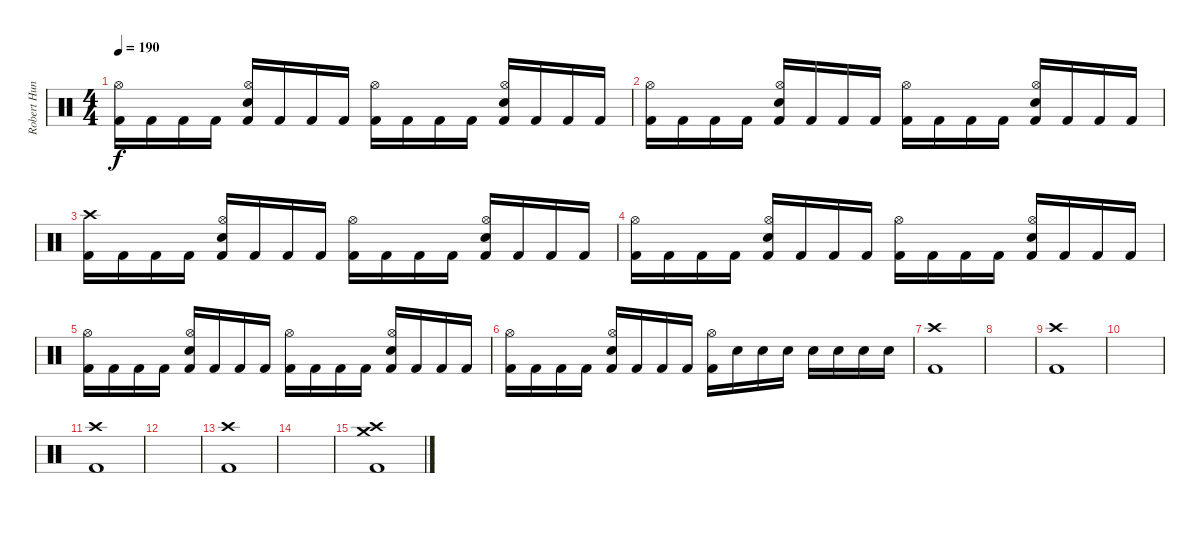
\track ("Robert Hunecke" "Robert Hun") {instrument percussion}
\staff {score}
\articulation defaults
\ts (4 4)
\tempo 190
\clef neutral
\ks c
("Kick (hit) 2" "Hi-Hat (open)").16{dy f} "Kick (hit) 2".16 "Kick (hit) 2".16 "Kick (hit) 2".16 ("Kick (hit) 2" "Electric Snare (hit)" "Hi-Hat (open)").16 "Kick (hit) 2".16 "Kick (hit) 2".16 "Kick (hit) 2".16 ("Kick (hit) 2" "Hi-Hat (open)").16 "Kick (hit) 2".16 "Kick (hit) 2".16 "Kick (hit) 2".16 ("Kick (hit) 2" "Electric Snare (hit)" "Hi-Hat (open)").16 "Kick (hit) 2".16 "Kick (hit) 2".16 "Kick (hit) 2".16 |
("Kick (hit) 2" "Hi-Hat (open)").16 "Kick (hit) 2".16 "Kick (hit) 2".16 "Kick (hit) 2".16 ("Kick (hit) 2" "Electric Snare (hit)" "Hi-Hat (open)").16 "Kick (hit) 2".16 "Kick (hit) 2".16 "Kick (hit) 2".16 ("Kick (hit) 2" "Hi-Hat (open)").16 "Kick (hit) 2".16 "Kick (hit) 2".16 "Kick (hit) 2".16 ("Kick (hit) 2" "Electric Snare (hit)" "Hi-Hat (open)").16 "Kick (hit) 2".16 "Kick (hit) 2".16 "Kick (hit) 2".16 |
("Kick (hit) 2" "Crash high (hit)").16 "Kick (hit) 2".16 "Kick (hit) 2".16 "Kick (hit) 2".16 ("Kick (hit) 2" "Electric Snare (hit)" "Hi-Hat (open)").16 "Kick (hit) 2".16 "Kick (hit) 2".16 "Kick (hit) 2".16 ("Kick (hit) 2" "Hi-Hat (open)").16 "Kick (hit) 2".16 "Kick (hit) 2".16 "Kick (hit) 2".16 ("Kick (hit) 2" "Electric Snare (hit)" "Hi-Hat (open)").16 "Kick (hit) 2".16 "Kick (hit) 2".16 "Kick (hit) 2".16 |
("Kick (hit) 2" "Hi-Hat (open)").16 "Kick (hit) 2".16 "Kick (hit) 2".16 "Kick (hit) 2".16 ("Kick (hit) 2" "Electric Snare (hit)" "Hi-Hat (open)").16 "Kick (hit) 2".16 "Kick (hit) 2".16 "Kick (hit) 2".16 ("Kick (hit) 2" "Hi-Hat (open)").16 "Kick (hit) 2".16 "Kick (hit) 2".16 "Kick (hit) 2".16 ("Kick (hit) 2" "Electric Snare (hit)" "Hi-Hat (open)").16 "Kick (hit) 2".16 "Kick (hit) 2".16 "Kick (hit) 2".16 |
("Kick (hit) 2" "Hi-Hat (open)").16 "Kick (hit) 2".16 "Kick (hit) 2".16 "Kick (hit) 2".16 ("Kick (hit) 2" "Electric Snare (hit)" "Hi-Hat (open)").16 "Kick (hit) 2".16 "Kick (hit) 2".16 "Kick (hit) 2".16 ("Kick (hit) 2" "Hi-Hat (open)").16 "Kick (hit) 2".16 "Kick (hit) 2".16 "Kick (hit) 2".16 ("Kick (hit) 2" "Electric Snare (hit)" "Hi-Hat (open)").16 "Kick (hit) 2".16 "Kick (hit) 2".16 "Kick (hit) 2".16 |
("Kick (hit) 2" "Hi-Hat (open)").16 "Kick (hit) 2".16 "Kick (hit) 2".16 "Kick (hit) 2".16 ("Kick (hit) 2" "Electric Snare (hit)" "Hi-Hat (open)").16 "Kick (hit) 2".16 "Kick (hit) 2".16 "Kick (hit) 2".16 ("Kick (hit) 2" "Hi-Hat (open)").16 "Electric Snare (hit)".16 "Electric Snare (hit)".16 "Electric Snare (hit)".16 "Electric Snare (hit)".16 "Electric Snare (hit)".16 "Electric Snare (hit)".16 "Electric Snare (hit)".16 |
\section ("" "")
("Kick (hit) 2" "Crash high (hit)").1 |
|
("Kick (hit) 2" "Crash high (hit)").1 |
|
("Kick (hit) 2" "Crash high (hit)").1 |
|
("Kick (hit) 2" "Crash high (hit)").1 |
|
\section ("" "")
("Kick (hit) 2" "Crash high (hit)" "Crash medium (hit)").1
